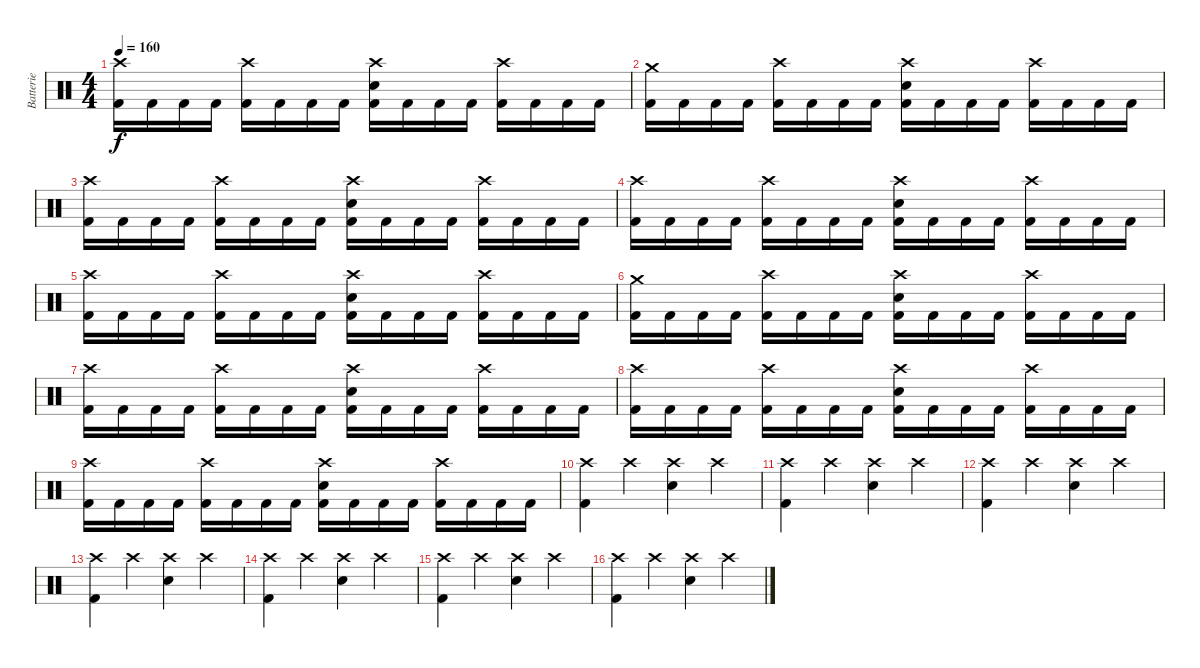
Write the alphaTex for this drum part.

\track ("Batterie" "Batterie") {instrument percussion}
\staff {score}
\articulation defaults
\ts (4 4)
\tempo 160
\clef neutral
\ks c
("Crash high (hit)" "Kick (hit) 2").16{dy f} "Kick (hit) 2".16 "Kick (hit) 2".16 "Kick (hit) 2".16 ("Crash high (hit)" "Kick (hit) 2").16 "Kick (hit) 2".16 "Kick (hit) 2".16 "Kick (hit) 2".16 ("Crash high (hit)" "Electric Snare (hit)" "Kick (hit) 2").16 "Kick (hit) 2".16 "Kick (hit) 2".16 "Kick (hit) 2".16 ("Crash high (hit)" "Kick (hit) 2").16 "Kick (hit) 2".16 "Kick (hit) 2".16 "Kick (hit) 2".16 |
("Crash medium (hit)" "Kick (hit) 2").16 "Kick (hit) 2".16 "Kick (hit) 2".16 "Kick (hit) 2".16 ("Crash high (hit)" "Kick (hit) 2").16 "Kick (hit) 2".16 "Kick (hit) 2".16 "Kick (hit) 2".16 ("Crash high (hit)" "Electric Snare (hit)" "Kick (hit) 2").16 "Kick (hit) 2".16 "Kick (hit) 2".16 "Kick (hit) 2".16 ("Crash high (hit)" "Kick (hit) 2").16 "Kick (hit) 2".16 "Kick (hit) 2".16 "Kick (hit) 2".16 |
("Crash high (hit)" "Kick (hit) 2").16 "Kick (hit) 2".16 "Kick (hit) 2".16 "Kick (hit) 2".16 ("Crash high (hit)" "Kick (hit) 2").16 "Kick (hit) 2".16 "Kick (hit) 2".16 "Kick (hit) 2".16 ("Crash high (hit)" "Electric Snare (hit)" "Kick (hit) 2").16 "Kick (hit) 2".16 "Kick (hit) 2".16 "Kick (hit) 2".16 ("Crash high (hit)" "Kick (hit) 2").16 "Kick (hit) 2".16 "Kick (hit) 2".16 "Kick (hit) 2".16 |
("Crash high (hit)" "Kick (hit) 2").16 "Kick (hit) 2".16 "Kick (hit) 2".16 "Kick (hit) 2".16 ("Crash high (hit)" "Kick (hit) 2").16 "Kick (hit) 2".16 "Kick (hit) 2".16 "Kick (hit) 2".16 ("Crash high (hit)" "Electric Snare (hit)" "Kick (hit) 2").16 "Kick (hit) 2".16 "Kick (hit) 2".16 "Kick (hit) 2".16 ("Crash high (hit)" "Kick (hit) 2").16 "Kick (hit) 2".16 "Kick (hit) 2".16 "Kick (hit) 2".16 |
("Crash high (hit)" "Kick (hit) 2").16 "Kick (hit) 2".16 "Kick (hit) 2".16 "Kick (hit) 2".16 ("Crash high (hit)" "Kick (hit) 2").16 "Kick (hit) 2".16 "Kick (hit) 2".16 "Kick (hit) 2".16 ("Crash high (hit)" "Electric Snare (hit)" "Kick (hit) 2").16 "Kick (hit) 2".16 "Kick (hit) 2".16 "Kick (hit) 2".16 ("Crash high (hit)" "Kick (hit) 2").16 "Kick (hit) 2".16 "Kick (hit) 2".16 "Kick (hit) 2".16 |
("Crash medium (hit)" "Kick (hit) 2").16 "Kick (hit) 2".16 "Kick (hit) 2".16 "Kick (hit) 2".16 ("Crash high (hit)" "Kick (hit) 2").16 "Kick (hit) 2".16 "Kick (hit) 2".16 "Kick (hit) 2".16 ("Crash high (hit)" "Electric Snare (hit)" "Kick (hit) 2").16 "Kick (hit) 2".16 "Kick (hit) 2".16 "Kick (hit) 2".16 ("Crash high (hit)" "Kick (hit) 2").16 "Kick (hit) 2".16 "Kick (hit) 2".16 "Kick (hit) 2".16 |
("Crash high (hit)" "Kick (hit) 2").16 "Kick (hit) 2".16 "Kick (hit) 2".16 "Kick (hit) 2".16 ("Crash high (hit)" "Kick (hit) 2").16 "Kick (hit) 2".16 "Kick (hit) 2".16 "Kick (hit) 2".16 ("Crash high (hit)" "Electric Snare (hit)" "Kick (hit) 2").16 "Kick (hit) 2".16 "Kick (hit) 2".16 "Kick (hit) 2".16 ("Crash high (hit)" "Kick (hit) 2").16 "Kick (hit) 2".16 "Kick (hit) 2".16 "Kick (hit) 2".16 |
("Crash high (hit)" "Kick (hit) 2").16 "Kick (hit) 2".16 "Kick (hit) 2".16 "Kick (hit) 2".16 ("Crash high (hit)" "Kick (hit) 2").16 "Kick (hit) 2".16 "Kick (hit) 2".16 "Kick (hit) 2".16 ("Crash high (hit)" "Electric Snare (hit)" "Kick (hit) 2").16 "Kick (hit) 2".16 "Kick (hit) 2".16 "Kick (hit) 2".16 ("Crash high (hit)" "Kick (hit) 2").16 "Kick (hit) 2".16 "Kick (hit) 2".16 "Kick (hit) 2".16 |
("Crash high (hit)" "Kick (hit) 2").16 "Kick (hit) 2".16 "Kick (hit) 2".16 "Kick (hit) 2".16 ("Crash high (hit)" "Kick (hit) 2").16 "Kick (hit) 2".16 "Kick (hit) 2".16 "Kick (hit) 2".16 ("Crash high (hit)" "Electric Snare (hit)" "Kick (hit) 2").16 "Kick (hit) 2".16 "Kick (hit) 2".16 "Kick (hit) 2".16 ("Crash high (hit)" "Kick (hit) 2").16 "Kick (hit) 2".16 "Kick (hit) 2".16 "Kick (hit) 2".16 |
("Crash high (hit)" "Kick (hit) 2").4 "Crash high (hit)".4 ("Crash high (hit)" "Electric Snare (hit)").4 "Crash high (hit)".4 |
("Crash high (hit)" "Kick (hit) 2").4 "Crash high (hit)".4 ("Crash high (hit)" "Electric Snare (hit)").4 "Crash high (hit)".4 |
("Crash high (hit)" "Kick (hit) 2").4 "Crash high (hit)".4 ("Crash high (hit)" "Electric Snare (hit)").4 "Crash high (hit)".4 |
("Crash high (hit)" "Kick (hit) 2").4 "Crash high (hit)".4 ("Crash high (hit)" "Electric Snare (hit)").4 "Crash high (hit)".4 |
("Crash high (hit)" "Kick (hit) 2").4 "Crash high (hit)".4 ("Crash high (hit)" "Electric Snare (hit)").4 "Crash high (hit)".4 |
("Crash high (hit)" "Kick (hit) 2").4 "Crash high (hit)".4 ("Crash high (hit)" "Electric Snare (hit)").4 "Crash high (hit)".4 |
("Crash high (hit)" "Kick (hit) 2").4 "Crash high (hit)".4 ("Crash high (hit)" "Electric Snare (hit)").4 "Crash high (hit)".4
